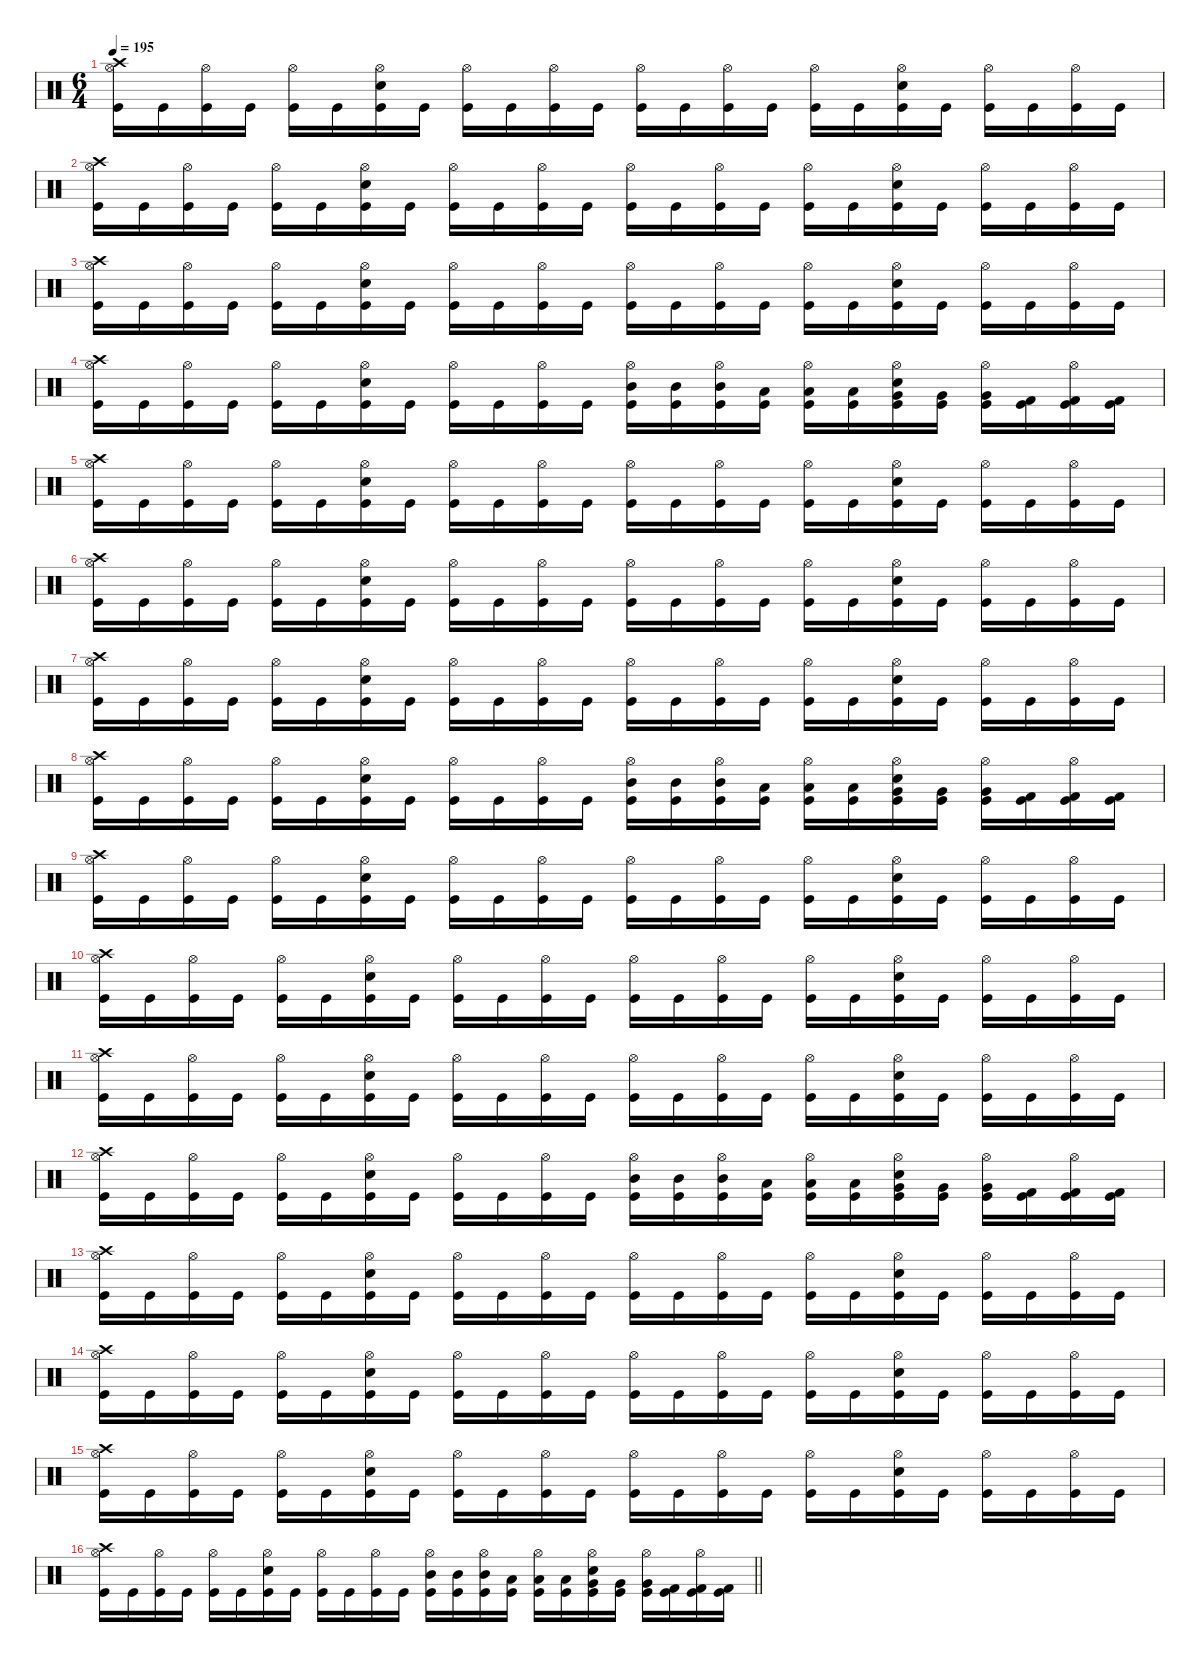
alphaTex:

\defaultSystemsLayout 4
\hideDynamics
\bracketExtendMode nobrackets
\singleTrackTrackNamePolicy hidden
\multiTrackTrackNamePolicy hidden
\firstSystemTrackNameMode fullname
\firstSystemTrackNameOrientation horizontal
\otherSystemsTrackNameOrientation horizontal
\track ("Percussion" "drm.") {defaultSystemsLayout 4 instrument percussion}
\staff {score}
\articulation defaults
\ts (6 4)
\tempo 195
\clef neutral
\ks c
("Crash high (hit)" "Hi-Hat (open)" "Kick (hit)").16{dy f beam Down} "Kick (hit)".16{beam Down} ("Hi-Hat (open)" "Kick (hit)").16{beam Down} "Kick (hit)".16{beam Down} ("Hi-Hat (open)" "Kick (hit)").16{beam Down} "Kick (hit)".16{beam Down} ("Snare (hit) 2" "Hi-Hat (open)" "Kick (hit)").16{beam Down} "Kick (hit)".16{beam Down} ("Hi-Hat (open)" "Kick (hit)").16{beam Down} "Kick (hit)".16{beam Down} ("Hi-Hat (open)" "Kick (hit)").16{beam Down} "Kick (hit)".16{beam Down} ("Hi-Hat (open)" "Kick (hit)").16{beam Down} "Kick (hit)".16{beam Down} ("Hi-Hat (open)" "Kick (hit)").16{beam Down} "Kick (hit)".16{beam Down} ("Hi-Hat (open)" "Kick (hit)").16{beam Down} "Kick (hit)".16{beam Down} ("Snare (hit) 2" "Hi-Hat (open)" "Kick (hit)").16{beam Down} "Kick (hit)".16{beam Down} ("Hi-Hat (open)" "Kick (hit)").16{beam Down} "Kick (hit)".16{beam Down} ("Hi-Hat (open)" "Kick (hit)").16{beam Down} "Kick (hit)".16{beam Down} |
("Crash high (hit)" "Hi-Hat (open)" "Kick (hit)").16{beam Down} "Kick (hit)".16{beam Down} ("Hi-Hat (open)" "Kick (hit)").16{beam Down} "Kick (hit)".16{beam Down} ("Hi-Hat (open)" "Kick (hit)").16{beam Down} "Kick (hit)".16{beam Down} ("Snare (hit) 2" "Hi-Hat (open)" "Kick (hit)").16{beam Down} "Kick (hit)".16{beam Down} ("Hi-Hat (open)" "Kick (hit)").16{beam Down} "Kick (hit)".16{beam Down} ("Hi-Hat (open)" "Kick (hit)").16{beam Down} "Kick (hit)".16{beam Down} ("Hi-Hat (open)" "Kick (hit)").16{beam Down} "Kick (hit)".16{beam Down} ("Hi-Hat (open)" "Kick (hit)").16{beam Down} "Kick (hit)".16{beam Down} ("Hi-Hat (open)" "Kick (hit)").16{beam Down} "Kick (hit)".16{beam Down} ("Snare (hit) 2" "Hi-Hat (open)" "Kick (hit)").16{beam Down} "Kick (hit)".16{beam Down} ("Hi-Hat (open)" "Kick (hit)").16{beam Down} "Kick (hit)".16{beam Down} ("Hi-Hat (open)" "Kick (hit)").16{beam Down} "Kick (hit)".16{beam Down} |
("Crash high (hit)" "Hi-Hat (open)" "Kick (hit)").16{beam Down} "Kick (hit)".16{beam Down} ("Hi-Hat (open)" "Kick (hit)").16{beam Down} "Kick (hit)".16{beam Down} ("Hi-Hat (open)" "Kick (hit)").16{beam Down} "Kick (hit)".16{beam Down} ("Snare (hit) 2" "Hi-Hat (open)" "Kick (hit)").16{beam Down} "Kick (hit)".16{beam Down} ("Hi-Hat (open)" "Kick (hit)").16{beam Down} "Kick (hit)".16{beam Down} ("Hi-Hat (open)" "Kick (hit)").16{beam Down} "Kick (hit)".16{beam Down} ("Hi-Hat (open)" "Kick (hit)").16{beam Down} "Kick (hit)".16{beam Down} ("Hi-Hat (open)" "Kick (hit)").16{beam Down} "Kick (hit)".16{beam Down} ("Hi-Hat (open)" "Kick (hit)").16{beam Down} "Kick (hit)".16{beam Down} ("Snare (hit) 2" "Hi-Hat (open)" "Kick (hit)").16{beam Down} "Kick (hit)".16{beam Down} ("Hi-Hat (open)" "Kick (hit)").16{beam Down} "Kick (hit)".16{beam Down} ("Hi-Hat (open)" "Kick (hit)").16{beam Down} "Kick (hit)".16{beam Down} |
("Crash high (hit)" "Hi-Hat (open)" "Kick (hit)").16{beam Down} "Kick (hit)".16{beam Down} ("Hi-Hat (open)" "Kick (hit)").16{beam Down} "Kick (hit)".16{beam Down} ("Hi-Hat (open)" "Kick (hit)").16{beam Down} "Kick (hit)".16{beam Down} ("Snare (hit) 2" "Hi-Hat (open)" "Kick (hit)").16{beam Down} "Kick (hit)".16{beam Down} ("Hi-Hat (open)" "Kick (hit)").16{beam Down} "Kick (hit)".16{beam Down} ("Hi-Hat (open)" "Kick (hit)").16{beam Down} "Kick (hit)".16{beam Down} ("Hi-Hat (open)" "Mid Tom (hit)" "Kick (hit)").16{beam Down} ("Mid Tom (hit)" "Kick (hit)").16{beam Down} ("Hi-Hat (open)" "Mid Tom (hit)" "Kick (hit)").16{beam Down} ("Low Tom (hit)" "Kick (hit)").16{beam Down} ("Hi-Hat (open)" "Low Tom (hit)" "Kick (hit)").16{beam Down} ("Low Tom (hit)" "Kick (hit)").16{beam Down} ("Snare (hit) 2" "Hi-Hat (open)" "Very Low Tom (hit)" "Kick (hit)").16{beam Down} ("Very Low Tom (hit)" "Kick (hit)").16{beam Down} ("Hi-Hat (open)" "Very Low Tom (hit)" "Kick (hit)").16{beam Down} ("Kick (hit) 2" "Kick (hit)").16{beam Down} ("Hi-Hat (open)" "Kick (hit) 2" "Kick (hit)").16{beam Down} ("Kick (hit) 2" "Kick (hit)").16{beam Down} |
("Crash high (hit)" "Hi-Hat (open)" "Kick (hit)").16{beam Down} "Kick (hit)".16{beam Down} ("Hi-Hat (open)" "Kick (hit)").16{beam Down} "Kick (hit)".16{beam Down} ("Hi-Hat (open)" "Kick (hit)").16{beam Down} "Kick (hit)".16{beam Down} ("Snare (hit) 2" "Hi-Hat (open)" "Kick (hit)").16{beam Down} "Kick (hit)".16{beam Down} ("Hi-Hat (open)" "Kick (hit)").16{beam Down} "Kick (hit)".16{beam Down} ("Hi-Hat (open)" "Kick (hit)").16{beam Down} "Kick (hit)".16{beam Down} ("Hi-Hat (open)" "Kick (hit)").16{beam Down} "Kick (hit)".16{beam Down} ("Hi-Hat (open)" "Kick (hit)").16{beam Down} "Kick (hit)".16{beam Down} ("Hi-Hat (open)" "Kick (hit)").16{beam Down} "Kick (hit)".16{beam Down} ("Snare (hit) 2" "Hi-Hat (open)" "Kick (hit)").16{beam Down} "Kick (hit)".16{beam Down} ("Hi-Hat (open)" "Kick (hit)").16{beam Down} "Kick (hit)".16{beam Down} ("Hi-Hat (open)" "Kick (hit)").16{beam Down} "Kick (hit)".16{beam Down} |
("Crash high (hit)" "Hi-Hat (open)" "Kick (hit)").16{beam Down} "Kick (hit)".16{beam Down} ("Hi-Hat (open)" "Kick (hit)").16{beam Down} "Kick (hit)".16{beam Down} ("Hi-Hat (open)" "Kick (hit)").16{beam Down} "Kick (hit)".16{beam Down} ("Snare (hit) 2" "Hi-Hat (open)" "Kick (hit)").16{beam Down} "Kick (hit)".16{beam Down} ("Hi-Hat (open)" "Kick (hit)").16{beam Down} "Kick (hit)".16{beam Down} ("Hi-Hat (open)" "Kick (hit)").16{beam Down} "Kick (hit)".16{beam Down} ("Hi-Hat (open)" "Kick (hit)").16{beam Down} "Kick (hit)".16{beam Down} ("Hi-Hat (open)" "Kick (hit)").16{beam Down} "Kick (hit)".16{beam Down} ("Hi-Hat (open)" "Kick (hit)").16{beam Down} "Kick (hit)".16{beam Down} ("Snare (hit) 2" "Hi-Hat (open)" "Kick (hit)").16{beam Down} "Kick (hit)".16{beam Down} ("Hi-Hat (open)" "Kick (hit)").16{beam Down} "Kick (hit)".16{beam Down} ("Hi-Hat (open)" "Kick (hit)").16{beam Down} "Kick (hit)".16{beam Down} |
("Crash high (hit)" "Hi-Hat (open)" "Kick (hit)").16{beam Down} "Kick (hit)".16{beam Down} ("Hi-Hat (open)" "Kick (hit)").16{beam Down} "Kick (hit)".16{beam Down} ("Hi-Hat (open)" "Kick (hit)").16{beam Down} "Kick (hit)".16{beam Down} ("Snare (hit) 2" "Hi-Hat (open)" "Kick (hit)").16{beam Down} "Kick (hit)".16{beam Down} ("Hi-Hat (open)" "Kick (hit)").16{beam Down} "Kick (hit)".16{beam Down} ("Hi-Hat (open)" "Kick (hit)").16{beam Down} "Kick (hit)".16{beam Down} ("Hi-Hat (open)" "Kick (hit)").16{beam Down} "Kick (hit)".16{beam Down} ("Hi-Hat (open)" "Kick (hit)").16{beam Down} "Kick (hit)".16{beam Down} ("Hi-Hat (open)" "Kick (hit)").16{beam Down} "Kick (hit)".16{beam Down} ("Snare (hit) 2" "Hi-Hat (open)" "Kick (hit)").16{beam Down} "Kick (hit)".16{beam Down} ("Hi-Hat (open)" "Kick (hit)").16{beam Down} "Kick (hit)".16{beam Down} ("Hi-Hat (open)" "Kick (hit)").16{beam Down} "Kick (hit)".16{beam Down} |
("Crash high (hit)" "Hi-Hat (open)" "Kick (hit)").16{beam Down} "Kick (hit)".16{beam Down} ("Hi-Hat (open)" "Kick (hit)").16{beam Down} "Kick (hit)".16{beam Down} ("Hi-Hat (open)" "Kick (hit)").16{beam Down} "Kick (hit)".16{beam Down} ("Snare (hit) 2" "Hi-Hat (open)" "Kick (hit)").16{beam Down} "Kick (hit)".16{beam Down} ("Hi-Hat (open)" "Kick (hit)").16{beam Down} "Kick (hit)".16{beam Down} ("Hi-Hat (open)" "Kick (hit)").16{beam Down} "Kick (hit)".16{beam Down} ("Hi-Hat (open)" "Mid Tom (hit)" "Kick (hit)").16{beam Down} ("Mid Tom (hit)" "Kick (hit)").16{beam Down} ("Hi-Hat (open)" "Mid Tom (hit)" "Kick (hit)").16{beam Down} ("Low Tom (hit)" "Kick (hit)").16{beam Down} ("Hi-Hat (open)" "Low Tom (hit)" "Kick (hit)").16{beam Down} ("Low Tom (hit)" "Kick (hit)").16{beam Down} ("Snare (hit) 2" "Hi-Hat (open)" "Very Low Tom (hit)" "Kick (hit)").16{beam Down} ("Very Low Tom (hit)" "Kick (hit)").16{beam Down} ("Hi-Hat (open)" "Very Low Tom (hit)" "Kick (hit)").16{beam Down} ("Kick (hit) 2" "Kick (hit)").16{beam Down} ("Hi-Hat (open)" "Kick (hit) 2" "Kick (hit)").16{beam Down} ("Kick (hit) 2" "Kick (hit)").16{beam Down} |
("Crash high (hit)" "Hi-Hat (open)" "Kick (hit)").16{beam Down} "Kick (hit)".16{beam Down} ("Hi-Hat (open)" "Kick (hit)").16{beam Down} "Kick (hit)".16{beam Down} ("Hi-Hat (open)" "Kick (hit)").16{beam Down} "Kick (hit)".16{beam Down} ("Snare (hit) 2" "Hi-Hat (open)" "Kick (hit)").16{beam Down} "Kick (hit)".16{beam Down} ("Hi-Hat (open)" "Kick (hit)").16{beam Down} "Kick (hit)".16{beam Down} ("Hi-Hat (open)" "Kick (hit)").16{beam Down} "Kick (hit)".16{beam Down} ("Hi-Hat (open)" "Kick (hit)").16{beam Down} "Kick (hit)".16{beam Down} ("Hi-Hat (open)" "Kick (hit)").16{beam Down} "Kick (hit)".16{beam Down} ("Hi-Hat (open)" "Kick (hit)").16{beam Down} "Kick (hit)".16{beam Down} ("Snare (hit) 2" "Hi-Hat (open)" "Kick (hit)").16{beam Down} "Kick (hit)".16{beam Down} ("Hi-Hat (open)" "Kick (hit)").16{beam Down} "Kick (hit)".16{beam Down} ("Hi-Hat (open)" "Kick (hit)").16{beam Down} "Kick (hit)".16{beam Down} |
("Crash high (hit)" "Hi-Hat (open)" "Kick (hit)").16{beam Down} "Kick (hit)".16{beam Down} ("Hi-Hat (open)" "Kick (hit)").16{beam Down} "Kick (hit)".16{beam Down} ("Hi-Hat (open)" "Kick (hit)").16{beam Down} "Kick (hit)".16{beam Down} ("Snare (hit) 2" "Hi-Hat (open)" "Kick (hit)").16{beam Down} "Kick (hit)".16{beam Down} ("Hi-Hat (open)" "Kick (hit)").16{beam Down} "Kick (hit)".16{beam Down} ("Hi-Hat (open)" "Kick (hit)").16{beam Down} "Kick (hit)".16{beam Down} ("Hi-Hat (open)" "Kick (hit)").16{beam Down} "Kick (hit)".16{beam Down} ("Hi-Hat (open)" "Kick (hit)").16{beam Down} "Kick (hit)".16{beam Down} ("Hi-Hat (open)" "Kick (hit)").16{beam Down} "Kick (hit)".16{beam Down} ("Snare (hit) 2" "Hi-Hat (open)" "Kick (hit)").16{beam Down} "Kick (hit)".16{beam Down} ("Hi-Hat (open)" "Kick (hit)").16{beam Down} "Kick (hit)".16{beam Down} ("Hi-Hat (open)" "Kick (hit)").16{beam Down} "Kick (hit)".16{beam Down} |
("Crash high (hit)" "Hi-Hat (open)" "Kick (hit)").16{beam Down} "Kick (hit)".16{beam Down} ("Hi-Hat (open)" "Kick (hit)").16{beam Down} "Kick (hit)".16{beam Down} ("Hi-Hat (open)" "Kick (hit)").16{beam Down} "Kick (hit)".16{beam Down} ("Snare (hit) 2" "Hi-Hat (open)" "Kick (hit)").16{beam Down} "Kick (hit)".16{beam Down} ("Hi-Hat (open)" "Kick (hit)").16{beam Down} "Kick (hit)".16{beam Down} ("Hi-Hat (open)" "Kick (hit)").16{beam Down} "Kick (hit)".16{beam Down} ("Hi-Hat (open)" "Kick (hit)").16{beam Down} "Kick (hit)".16{beam Down} ("Hi-Hat (open)" "Kick (hit)").16{beam Down} "Kick (hit)".16{beam Down} ("Hi-Hat (open)" "Kick (hit)").16{beam Down} "Kick (hit)".16{beam Down} ("Snare (hit) 2" "Hi-Hat (open)" "Kick (hit)").16{beam Down} "Kick (hit)".16{beam Down} ("Hi-Hat (open)" "Kick (hit)").16{beam Down} "Kick (hit)".16{beam Down} ("Hi-Hat (open)" "Kick (hit)").16{beam Down} "Kick (hit)".16{beam Down} |
("Crash high (hit)" "Hi-Hat (open)" "Kick (hit)").16{beam Down} "Kick (hit)".16{beam Down} ("Hi-Hat (open)" "Kick (hit)").16{beam Down} "Kick (hit)".16{beam Down} ("Hi-Hat (open)" "Kick (hit)").16{beam Down} "Kick (hit)".16{beam Down} ("Snare (hit) 2" "Hi-Hat (open)" "Kick (hit)").16{beam Down} "Kick (hit)".16{beam Down} ("Hi-Hat (open)" "Kick (hit)").16{beam Down} "Kick (hit)".16{beam Down} ("Hi-Hat (open)" "Kick (hit)").16{beam Down} "Kick (hit)".16{beam Down} ("Hi-Hat (open)" "Mid Tom (hit)" "Kick (hit)").16{beam Down} ("Mid Tom (hit)" "Kick (hit)").16{beam Down} ("Hi-Hat (open)" "Mid Tom (hit)" "Kick (hit)").16{beam Down} ("Low Tom (hit)" "Kick (hit)").16{beam Down} ("Hi-Hat (open)" "Low Tom (hit)" "Kick (hit)").16{beam Down} ("Low Tom (hit)" "Kick (hit)").16{beam Down} ("Snare (hit) 2" "Hi-Hat (open)" "Very Low Tom (hit)" "Kick (hit)").16{beam Down} ("Very Low Tom (hit)" "Kick (hit)").16{beam Down} ("Hi-Hat (open)" "Very Low Tom (hit)" "Kick (hit)").16{beam Down} ("Kick (hit) 2" "Kick (hit)").16{beam Down} ("Hi-Hat (open)" "Kick (hit) 2" "Kick (hit)").16{beam Down} ("Kick (hit) 2" "Kick (hit)").16{beam Down} |
("Crash high (hit)" "Hi-Hat (open)" "Kick (hit)").16{beam Down} "Kick (hit)".16{beam Down} ("Hi-Hat (open)" "Kick (hit)").16{beam Down} "Kick (hit)".16{beam Down} ("Hi-Hat (open)" "Kick (hit)").16{beam Down} "Kick (hit)".16{beam Down} ("Snare (hit) 2" "Hi-Hat (open)" "Kick (hit)").16{beam Down} "Kick (hit)".16{beam Down} ("Hi-Hat (open)" "Kick (hit)").16{beam Down} "Kick (hit)".16{beam Down} ("Hi-Hat (open)" "Kick (hit)").16{beam Down} "Kick (hit)".16{beam Down} ("Hi-Hat (open)" "Kick (hit)").16{beam Down} "Kick (hit)".16{beam Down} ("Hi-Hat (open)" "Kick (hit)").16{beam Down} "Kick (hit)".16{beam Down} ("Hi-Hat (open)" "Kick (hit)").16{beam Down} "Kick (hit)".16{beam Down} ("Snare (hit) 2" "Hi-Hat (open)" "Kick (hit)").16{beam Down} "Kick (hit)".16{beam Down} ("Hi-Hat (open)" "Kick (hit)").16{beam Down} "Kick (hit)".16{beam Down} ("Hi-Hat (open)" "Kick (hit)").16{beam Down} "Kick (hit)".16{beam Down} |
("Crash high (hit)" "Hi-Hat (open)" "Kick (hit)").16{beam Down} "Kick (hit)".16{beam Down} ("Hi-Hat (open)" "Kick (hit)").16{beam Down} "Kick (hit)".16{beam Down} ("Hi-Hat (open)" "Kick (hit)").16{beam Down} "Kick (hit)".16{beam Down} ("Snare (hit) 2" "Hi-Hat (open)" "Kick (hit)").16{beam Down} "Kick (hit)".16{beam Down} ("Hi-Hat (open)" "Kick (hit)").16{beam Down} "Kick (hit)".16{beam Down} ("Hi-Hat (open)" "Kick (hit)").16{beam Down} "Kick (hit)".16{beam Down} ("Hi-Hat (open)" "Kick (hit)").16{beam Down} "Kick (hit)".16{beam Down} ("Hi-Hat (open)" "Kick (hit)").16{beam Down} "Kick (hit)".16{beam Down} ("Hi-Hat (open)" "Kick (hit)").16{beam Down} "Kick (hit)".16{beam Down} ("Snare (hit) 2" "Hi-Hat (open)" "Kick (hit)").16{beam Down} "Kick (hit)".16{beam Down} ("Hi-Hat (open)" "Kick (hit)").16{beam Down} "Kick (hit)".16{beam Down} ("Hi-Hat (open)" "Kick (hit)").16{beam Down} "Kick (hit)".16{beam Down} |
("Crash high (hit)" "Hi-Hat (open)" "Kick (hit)").16{beam Down} "Kick (hit)".16{beam Down} ("Hi-Hat (open)" "Kick (hit)").16{beam Down} "Kick (hit)".16{beam Down} ("Hi-Hat (open)" "Kick (hit)").16{beam Down} "Kick (hit)".16{beam Down} ("Snare (hit) 2" "Hi-Hat (open)" "Kick (hit)").16{beam Down} "Kick (hit)".16{beam Down} ("Hi-Hat (open)" "Kick (hit)").16{beam Down} "Kick (hit)".16{beam Down} ("Hi-Hat (open)" "Kick (hit)").16{beam Down} "Kick (hit)".16{beam Down} ("Hi-Hat (open)" "Kick (hit)").16{beam Down} "Kick (hit)".16{beam Down} ("Hi-Hat (open)" "Kick (hit)").16{beam Down} "Kick (hit)".16{beam Down} ("Hi-Hat (open)" "Kick (hit)").16{beam Down} "Kick (hit)".16{beam Down} ("Snare (hit) 2" "Hi-Hat (open)" "Kick (hit)").16{beam Down} "Kick (hit)".16{beam Down} ("Hi-Hat (open)" "Kick (hit)").16{beam Down} "Kick (hit)".16{beam Down} ("Hi-Hat (open)" "Kick (hit)").16{beam Down} "Kick (hit)".16{beam Down} |
\barLineRight lightlight
("Crash high (hit)" "Hi-Hat (open)" "Kick (hit)").16{beam Down} "Kick (hit)".16{beam Down} ("Hi-Hat (open)" "Kick (hit)").16{beam Down} "Kick (hit)".16{beam Down} ("Hi-Hat (open)" "Kick (hit)").16{beam Down} "Kick (hit)".16{beam Down} ("Snare (hit) 2" "Hi-Hat (open)" "Kick (hit)").16{beam Down} "Kick (hit)".16{beam Down} ("Hi-Hat (open)" "Kick (hit)").16{beam Down} "Kick (hit)".16{beam Down} ("Hi-Hat (open)" "Kick (hit)").16{beam Down} "Kick (hit)".16{beam Down} ("Hi-Hat (open)" "Mid Tom (hit)" "Kick (hit)").16{beam Down} ("Mid Tom (hit)" "Kick (hit)").16{beam Down} ("Hi-Hat (open)" "Mid Tom (hit)" "Kick (hit)").16{beam Down} ("Low Tom (hit)" "Kick (hit)").16{beam Down} ("Hi-Hat (open)" "Low Tom (hit)" "Kick (hit)").16{beam Down} ("Low Tom (hit)" "Kick (hit)").16{beam Down} ("Snare (hit) 2" "Hi-Hat (open)" "Very Low Tom (hit)" "Kick (hit)").16{beam Down} ("Very Low Tom (hit)" "Kick (hit)").16{beam Down} ("Hi-Hat (open)" "Very Low Tom (hit)" "Kick (hit)").16{beam Down} ("Kick (hit) 2" "Kick (hit)").16{beam Down} ("Hi-Hat (open)" "Kick (hit) 2" "Kick (hit)").16{beam Down} ("Kick (hit) 2" "Kick (hit)").16{beam Down}
